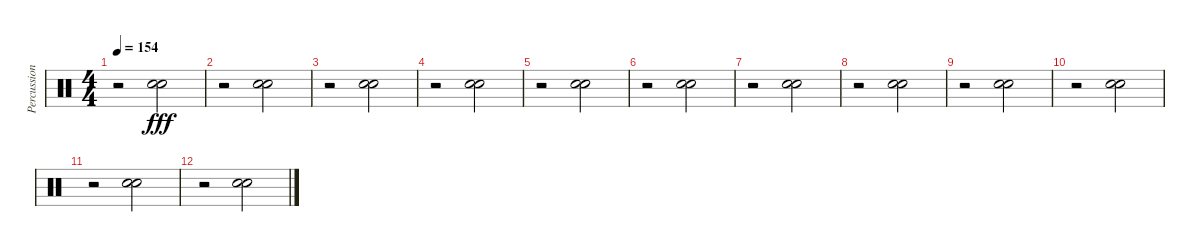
\track ("Percussion" "Percussion") {instrument percussion}
\staff {score}
\articulation defaults
\ts (4 4)
\tempo 154
\clef neutral
\ks c
r.2{dy fff volume 16} ("Hand Clap (hit)" "Hand Clap (hit)").2{bd 480} |
r.2{volume 16} ("Hand Clap (hit)" "Hand Clap (hit)").2{bd 480} |
r.2{volume 16} ("Hand Clap (hit)" "Hand Clap (hit)").2{bd 480} |
r.2{volume 16} ("Hand Clap (hit)" "Hand Clap (hit)").2{bd 480} |
r.2{volume 16} ("Hand Clap (hit)" "Hand Clap (hit)").2{bd 480} |
r.2{volume 16} ("Hand Clap (hit)" "Hand Clap (hit)").2{bd 480} |
r.2{volume 16} ("Hand Clap (hit)" "Hand Clap (hit)").2{bd 480} |
r.2{volume 16} ("Hand Clap (hit)" "Hand Clap (hit)").2{bd 480} |
r.2{volume 16} ("Hand Clap (hit)" "Hand Clap (hit)").2{bd 480} |
r.2{volume 16} ("Hand Clap (hit)" "Hand Clap (hit)").2{bd 480} |
r.2{volume 16} ("Hand Clap (hit)" "Hand Clap (hit)").2{bd 480} |
r.2{volume 16} ("Hand Clap (hit)" "Hand Clap (hit)").2{bd 480}
